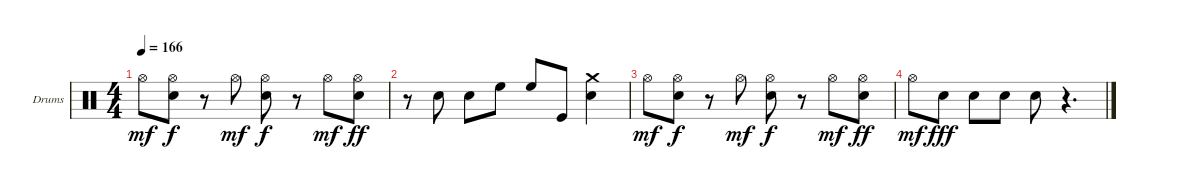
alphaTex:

\defaultSystemsLayout 4
\bracketExtendMode groupsimilarinstruments
\firstSystemTrackNameOrientation horizontal
\otherSystemsTrackNameOrientation horizontal
\track ("Lars Ulrich" "Drums") {instrument percussion}
\staff {score}
\articulation defaults
\ts (4 4)
\tempo 166
\clef neutral
\scale
0.333333
\ks c "Hi-Hat (open)".8{dy mf}
("Hi-Hat (open)" "Snare (hit) 2").8{dy f} r.8 "Hi-Hat (open)".8{dy mf} ("Hi-Hat (open)" "Snare (hit) 2").8{dy f} r.8 "Hi-Hat (open)".8{dy mf} ("Hi-Hat (open)" "Snare (hit) 2").8{dy ff} |
r.8 "Snare (hit) 2".8 "Snare (hit) 2".8 "High Floor Tom (hit)".8 "High Floor Tom (hit)".8 "Kick (hit)".8 ("Crash medium (hit)" "Snare (hit) 2").4 |
"Hi-Hat (open)".8{dy mf} ("Hi-Hat (open)" "Snare (hit) 2").8{dy f} r.8 "Hi-Hat (open)".8{dy mf} ("Hi-Hat (open)" "Snare (hit) 2").8{dy f} r.8 "Hi-Hat (open)".8{dy mf} ("Hi-Hat (open)" "Snare (hit) 2").8{dy ff} |
"Hi-Hat (open)".8{dy mf} "Snare (hit) 2".8{dy fff} "Snare (hit) 2".8 "Snare (hit) 2".8 "Snare (hit) 2".8 r.4{d}
